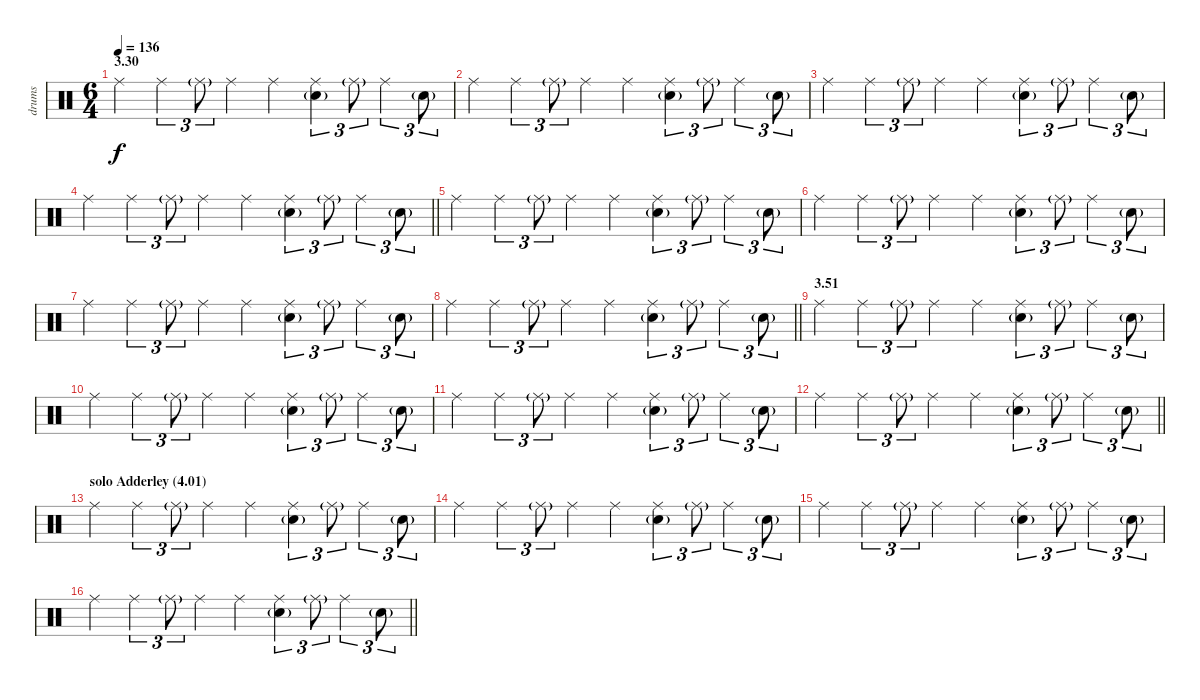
\track ("drums" "drums") {instrument percussion}
\staff {score}
\articulation defaults
\ts (6 4)
\section ("" "3.30")
\tempo 136
\clef neutral
\ks c "Ride (middle)".4{dy f} "Ride (middle)".4{tu (3 2)} "Ride (middle)"{g}.8{tu (3 2)} "Ride (middle)".4 "Ride (middle)".4
("Ride (middle)" "Electric Snare (hit)"{g}).4{tu (3 2)} "Ride (middle)"{g}.8{tu (3 2)} "Ride (middle)".4{tu (3 2)} "Electric Snare (hit)"{g}.8{tu (3 2)} |
"Ride (middle)".4 "Ride (middle)".4{tu (3 2)} "Ride (middle)"{g}.8{tu (3 2)} "Ride (middle)".4 "Ride (middle)".4 ("Ride (middle)" "Electric Snare (hit)"{g}).4{tu (3 2)} "Ride (middle)"{g}.8{tu (3 2)} "Ride (middle)".4{tu (3 2)} "Electric Snare (hit)"{g}.8{tu (3 2)} |
"Ride (middle)".4 "Ride (middle)".4{tu (3 2)} "Ride (middle)"{g}.8{tu (3 2)} "Ride (middle)".4 "Ride (middle)".4 ("Ride (middle)" "Electric Snare (hit)"{g}).4{tu (3 2)} "Ride (middle)"{g}.8{tu (3 2)} "Ride (middle)".4{tu (3 2)} "Electric Snare (hit)"{g}.8{tu (3 2)} |
\barLineRight lightlight "Ride (middle)".4 "Ride (middle)".4{tu (3 2)} "Ride (middle)"{g}.8{tu (3 2)} "Ride (middle)".4 "Ride (middle)".4
("Ride (middle)" "Electric Snare (hit)"{g}).4{tu (3 2)} "Ride (middle)"{g}.8{tu (3 2)} "Ride (middle)".4{tu (3 2)} "Electric Snare (hit)"{g}.8{tu (3 2)} |
"Ride (middle)".4 "Ride (middle)".4{tu (3 2)} "Ride (middle)"{g}.8{tu (3 2)} "Ride (middle)".4 "Ride (middle)".4 ("Ride (middle)" "Electric Snare (hit)"{g}).4{tu (3 2)} "Ride (middle)"{g}.8{tu (3 2)} "Ride (middle)".4{tu (3 2)} "Electric Snare (hit)"{g}.8{tu (3 2)} |
"Ride (middle)".4 "Ride (middle)".4{tu (3 2)} "Ride (middle)"{g}.8{tu (3 2)} "Ride (middle)".4 "Ride (middle)".4 ("Ride (middle)" "Electric Snare (hit)"{g}).4{tu (3 2)} "Ride (middle)"{g}.8{tu (3 2)} "Ride (middle)".4{tu (3 2)} "Electric Snare (hit)"{g}.8{tu (3 2)} |
"Ride (middle)".4 "Ride (middle)".4{tu (3 2)} "Ride (middle)"{g}.8{tu (3 2)} "Ride (middle)".4 "Ride (middle)".4 ("Ride (middle)" "Electric Snare (hit)"{g}).4{tu (3 2)} "Ride (middle)"{g}.8{tu (3 2)} "Ride (middle)".4{tu (3 2)} "Electric Snare (hit)"{g}.8{tu (3 2)} |
\barLineRight lightlight "Ride (middle)".4 "Ride (middle)".4{tu (3 2)} "Ride (middle)"{g}.8{tu (3 2)} "Ride (middle)".4 "Ride (middle)".4
("Ride (middle)" "Electric Snare (hit)"{g}).4{tu (3 2)} "Ride (middle)"{g}.8{tu (3 2)} "Ride (middle)".4{tu (3 2)} "Electric Snare (hit)"{g}.8{tu (3 2)} |
\section ("" "3.51")
"Ride (middle)".4 "Ride (middle)".4{tu (3 2)} "Ride (middle)"{g}.8{tu (3 2)} "Ride (middle)".4 "Ride (middle)".4 ("Ride (middle)" "Electric Snare (hit)"{g}).4{tu (3 2)} "Ride (middle)"{g}.8{tu (3 2)} "Ride (middle)".4{tu (3 2)} "Electric Snare (hit)"{g}.8{tu (3 2)} |
"Ride (middle)".4 "Ride (middle)".4{tu (3 2)} "Ride (middle)"{g}.8{tu (3 2)} "Ride (middle)".4 "Ride (middle)".4 ("Ride (middle)" "Electric Snare (hit)"{g}).4{tu (3 2)} "Ride (middle)"{g}.8{tu (3 2)} "Ride (middle)".4{tu (3 2)} "Electric Snare (hit)"{g}.8{tu (3 2)} |
"Ride (middle)".4 "Ride (middle)".4{tu (3 2)} "Ride (middle)"{g}.8{tu (3 2)} "Ride (middle)".4 "Ride (middle)".4 ("Ride (middle)" "Electric Snare (hit)"{g}).4{tu (3 2)} "Ride (middle)"{g}.8{tu (3 2)} "Ride (middle)".4{tu (3 2)} "Electric Snare (hit)"{g}.8{tu (3 2)} |
\barLineRight lightlight "Ride (middle)".4 "Ride (middle)".4{tu (3 2)} "Ride (middle)"{g}.8{tu (3 2)} "Ride (middle)".4 "Ride (middle)".4
("Ride (middle)" "Electric Snare (hit)"{g}).4{tu (3 2)} "Ride (middle)"{g}.8{tu (3 2)} "Ride (middle)".4{tu (3 2)} "Electric Snare (hit)"{g}.8{tu (3 2)} |
\section ("" "solo Adderley (4.01)")
"Ride (middle)".4 "Ride (middle)".4{tu (3 2)} "Ride (middle)"{g}.8{tu (3 2)} "Ride (middle)".4 "Ride (middle)".4 ("Ride (middle)" "Electric Snare (hit)"{g}).4{tu (3 2)} "Ride (middle)"{g}.8{tu (3 2)} "Ride (middle)".4{tu (3 2)} "Electric Snare (hit)"{g}.8{tu (3 2)} |
"Ride (middle)".4 "Ride (middle)".4{tu (3 2)} "Ride (middle)"{g}.8{tu (3 2)} "Ride (middle)".4 "Ride (middle)".4 ("Ride (middle)" "Electric Snare (hit)"{g}).4{tu (3 2)} "Ride (middle)"{g}.8{tu (3 2)} "Ride (middle)".4{tu (3 2)} "Electric Snare (hit)"{g}.8{tu (3 2)} |
"Ride (middle)".4 "Ride (middle)".4{tu (3 2)} "Ride (middle)"{g}.8{tu (3 2)} "Ride (middle)".4 "Ride (middle)".4 ("Ride (middle)" "Electric Snare (hit)"{g}).4{tu (3 2)} "Ride (middle)"{g}.8{tu (3 2)} "Ride (middle)".4{tu (3 2)} "Electric Snare (hit)"{g}.8{tu (3 2)} |
\barLineRight lightlight "Ride (middle)".4 "Ride (middle)".4{tu (3 2)} "Ride (middle)"{g}.8{tu (3 2)} "Ride (middle)".4 "Ride (middle)".4
("Ride (middle)" "Electric Snare (hit)"{g}).4{tu (3 2)} "Ride (middle)"{g}.8{tu (3 2)} "Ride (middle)".4{tu (3 2)} "Electric Snare (hit)"{g}.8{tu (3 2)}
